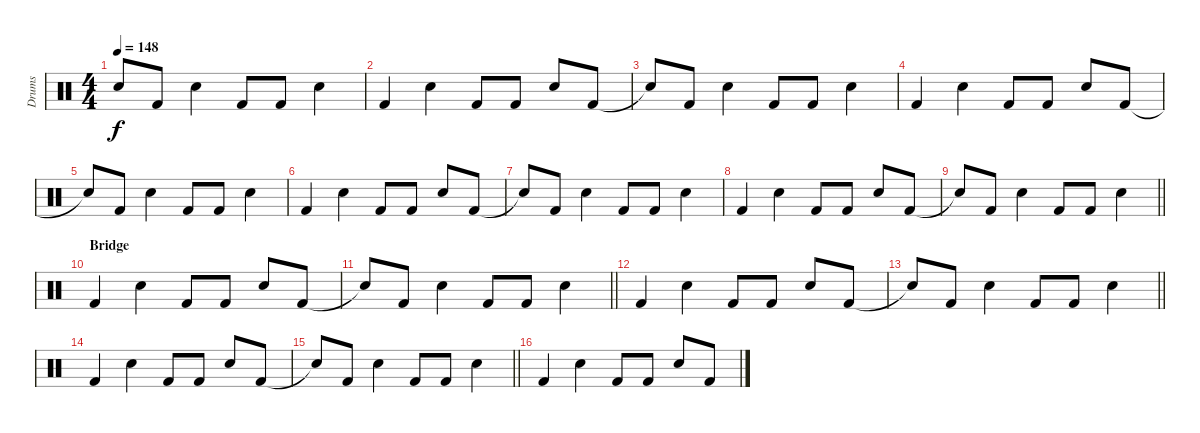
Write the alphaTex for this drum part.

\track ("Drums" "Drums") {instrument percussion}
\staff {score}
\articulation defaults
\ts (4 4)
\tempo 148
\clef neutral
\ks c "Snare (hit)"{t}.8{dy f} "Kick (hit) 2".8 "Electric Snare (hit)".4 "Kick (hit) 2".8 "Kick (hit) 2".8 "Electric Snare (hit)".4
|
"Kick (hit) 2".4 "Electric Snare (hit)".4 "Kick (hit) 2".8 "Kick (hit) 2".8 "Electric Snare (hit)".8 "Kick (hit) 2".8 |
"Snare (hit)"{t}.8 "Kick (hit) 2".8 "Electric Snare (hit)".4 "Kick (hit) 2".8 "Kick (hit) 2".8 "Electric Snare (hit)".4 |
"Kick (hit) 2".4 "Electric Snare (hit)".4 "Kick (hit) 2".8 "Kick (hit) 2".8 "Electric Snare (hit)".8 "Kick (hit) 2".8 |
"Snare (hit)"{t}.8 "Kick (hit) 2".8 "Electric Snare (hit)".4 "Kick (hit) 2".8 "Kick (hit) 2".8 "Electric Snare (hit)".4 |
"Kick (hit) 2".4 "Electric Snare (hit)".4 "Kick (hit) 2".8 "Kick (hit) 2".8 "Electric Snare (hit)".8 "Kick (hit) 2".8 |
"Snare (hit)"{t}.8 "Kick (hit) 2".8 "Electric Snare (hit)".4 "Kick (hit) 2".8 "Kick (hit) 2".8 "Electric Snare (hit)".4 |
"Kick (hit) 2".4 "Electric Snare (hit)".4 "Kick (hit) 2".8 "Kick (hit) 2".8 "Electric Snare (hit)".8 "Kick (hit) 2".8 |
\barLineRight lightlight "Snare (hit)"{t}.8 "Kick (hit) 2".8 "Electric Snare (hit)".4 "Kick (hit) 2".8 "Kick (hit) 2".8 "Electric Snare (hit)".4
|
\section ("" "Bridge")
"Kick (hit) 2".4 "Electric Snare (hit)".4 "Kick (hit) 2".8 "Kick (hit) 2".8 "Electric Snare (hit)".8 "Kick (hit) 2".8 |
\barLineRight lightlight "Snare (hit)"{t}.8 "Kick (hit) 2".8 "Electric Snare (hit)".4 "Kick (hit) 2".8 "Kick (hit) 2".8 "Electric Snare (hit)".4
|
"Kick (hit) 2".4 "Electric Snare (hit)".4 "Kick (hit) 2".8 "Kick (hit) 2".8 "Electric Snare (hit)".8 "Kick (hit) 2".8 |
\barLineRight lightlight "Snare (hit)"{t}.8 "Kick (hit) 2".8 "Electric Snare (hit)".4 "Kick (hit) 2".8 "Kick (hit) 2".8 "Electric Snare (hit)".4
|
"Kick (hit) 2".4 "Electric Snare (hit)".4 "Kick (hit) 2".8 "Kick (hit) 2".8 "Electric Snare (hit)".8 "Kick (hit) 2".8 |
\barLineRight lightlight "Snare (hit)"{t}.8 "Kick (hit) 2".8 "Electric Snare (hit)".4 "Kick (hit) 2".8 "Kick (hit) 2".8 "Electric Snare (hit)".4
|
"Kick (hit) 2".4 "Electric Snare (hit)".4 "Kick (hit) 2".8 "Kick (hit) 2".8 "Electric Snare (hit)".8 "Kick (hit) 2".8
